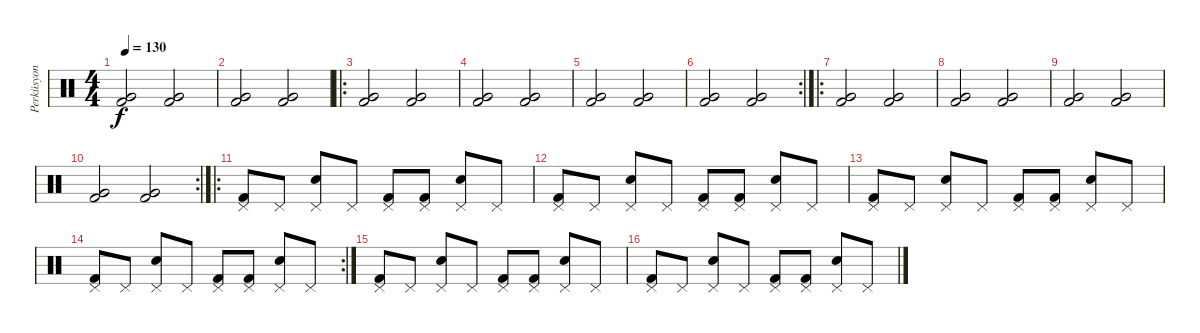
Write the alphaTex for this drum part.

\track ("Perküsyon" "Perküsyon") {instrument percussion}
\staff {score}
\articulation defaults
\ts (4 4)
\tempo 130
\clef neutral
\ks c
("Very Low Tom (hit)" "Kick (hit) 2").2{dy f} ("Very Low Tom (hit)" "Kick (hit) 2").2 |
("Very Low Tom (hit)" "Kick (hit) 2").2 ("Very Low Tom (hit)" "Kick (hit) 2").2 |
\ro
("Very Low Tom (hit)" "Kick (hit) 2").2 ("Very Low Tom (hit)" "Kick (hit) 2").2 |
("Very Low Tom (hit)" "Kick (hit) 2").2 ("Very Low Tom (hit)" "Kick (hit) 2").2 |
("Very Low Tom (hit)" "Kick (hit) 2").2 ("Very Low Tom (hit)" "Kick (hit) 2").2 |
\rc 2
("Very Low Tom (hit)" "Kick (hit) 2").2 ("Very Low Tom (hit)" "Kick (hit) 2").2 |
\ro
("Very Low Tom (hit)" "Kick (hit) 2").2 ("Very Low Tom (hit)" "Kick (hit) 2").2 |
("Very Low Tom (hit)" "Kick (hit) 2").2 ("Very Low Tom (hit)" "Kick (hit) 2").2 |
("Very Low Tom (hit)" "Kick (hit) 2").2 ("Very Low Tom (hit)" "Kick (hit) 2").2 |
\rc 2
("Very Low Tom (hit)" "Kick (hit) 2").2 ("Very Low Tom (hit)" "Kick (hit) 2").2 |
\ro
("Pedal Hi-Hat (hit)" "Kick (hit) 2").8 "Pedal Hi-Hat (hit)".8 ("Pedal Hi-Hat (hit)" "Electric Snare (hit)").8 "Pedal Hi-Hat (hit)".8 ("Pedal Hi-Hat (hit)" "Kick (hit) 2").8 ("Pedal Hi-Hat (hit)" "Kick (hit) 2").8 ("Pedal Hi-Hat (hit)" "Electric Snare (hit)").8 "Pedal Hi-Hat (hit)".8 |
("Pedal Hi-Hat (hit)" "Kick (hit) 2").8 "Pedal Hi-Hat (hit)".8 ("Pedal Hi-Hat (hit)" "Electric Snare (hit)").8 "Pedal Hi-Hat (hit)".8 ("Pedal Hi-Hat (hit)" "Kick (hit) 2").8 ("Pedal Hi-Hat (hit)" "Kick (hit) 2").8 ("Pedal Hi-Hat (hit)" "Electric Snare (hit)").8 "Pedal Hi-Hat (hit)".8 |
("Pedal Hi-Hat (hit)" "Kick (hit) 2").8 "Pedal Hi-Hat (hit)".8 ("Pedal Hi-Hat (hit)" "Electric Snare (hit)").8 "Pedal Hi-Hat (hit)".8 ("Pedal Hi-Hat (hit)" "Kick (hit) 2").8 ("Pedal Hi-Hat (hit)" "Kick (hit) 2").8 ("Pedal Hi-Hat (hit)" "Electric Snare (hit)").8 "Pedal Hi-Hat (hit)".8 |
\rc 2
("Pedal Hi-Hat (hit)" "Kick (hit) 2").8 "Pedal Hi-Hat (hit)".8 ("Pedal Hi-Hat (hit)" "Electric Snare (hit)").8 "Pedal Hi-Hat (hit)".8 ("Pedal Hi-Hat (hit)" "Kick (hit) 2").8 ("Pedal Hi-Hat (hit)" "Kick (hit) 2").8 ("Pedal Hi-Hat (hit)" "Electric Snare (hit)").8 "Pedal Hi-Hat (hit)".8 |
("Pedal Hi-Hat (hit)" "Kick (hit) 2").8 "Pedal Hi-Hat (hit)".8 ("Pedal Hi-Hat (hit)" "Electric Snare (hit)").8 "Pedal Hi-Hat (hit)".8 ("Pedal Hi-Hat (hit)" "Kick (hit) 2").8 ("Pedal Hi-Hat (hit)" "Kick (hit) 2").8 ("Pedal Hi-Hat (hit)" "Electric Snare (hit)").8 "Pedal Hi-Hat (hit)".8 |
("Pedal Hi-Hat (hit)" "Kick (hit) 2").8 "Pedal Hi-Hat (hit)".8 ("Pedal Hi-Hat (hit)" "Electric Snare (hit)").8 "Pedal Hi-Hat (hit)".8 ("Pedal Hi-Hat (hit)" "Kick (hit) 2").8 ("Pedal Hi-Hat (hit)" "Kick (hit) 2").8 ("Pedal Hi-Hat (hit)" "Electric Snare (hit)").8 "Pedal Hi-Hat (hit)".8
